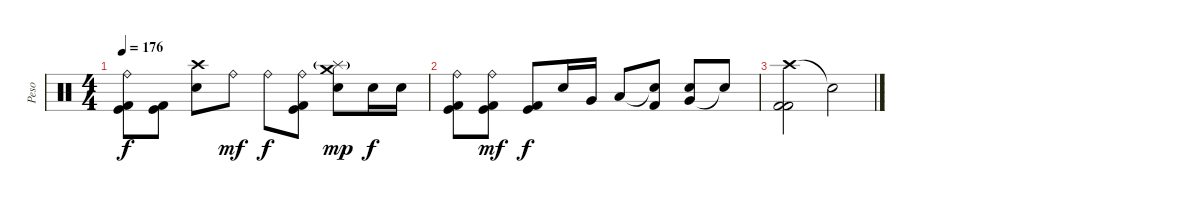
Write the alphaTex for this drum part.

\track ("Peso" "Peso") {instrument percussion}
\staff {score}
\articulation defaults
\ts (4 4)
\tempo 176
\clef neutral
\ks c
("Ride (bell)" "Kick (hit)" "Kick (hit) 2").8{dy f} ("Kick (hit)" "Kick (hit) 2").8 ("Crash high (hit)" "Electric Snare (hit)").8 "Ride (bell)".8{dy mf} "Ride (bell)".8{dy f} ("Ride (bell)" "Kick (hit)" "Kick (hit) 2").8 ("Crash medium (hit)" "Splash (hit)"{g} "Electric Snare (hit)").8{dy mp} "Electric Snare (hit)".16{dy f} "Electric Snare (hit)".16 |
("Ride (bell)" "Kick (hit)" "Kick (hit) 2").8 ("Ride (bell)" "Kick (hit)" "Kick (hit) 2").8{dy mf} ("Kick (hit)" "Kick (hit) 2").8{dy f} "Electric Snare (hit)".16 "Very Low Tom (hit)".16 "Low Tom (hit)".8 ("Snare (hit)"{t} "Kick (hit) 2").8 ("Very Low Tom (hit)" "Electric Snare (hit)").8 "Snare (hit)"{t}.8 |
("Crash high (hit)" "Kick (hit) 2" "Kick (hit) 2").2 "Snare (hit)"{t}.2
